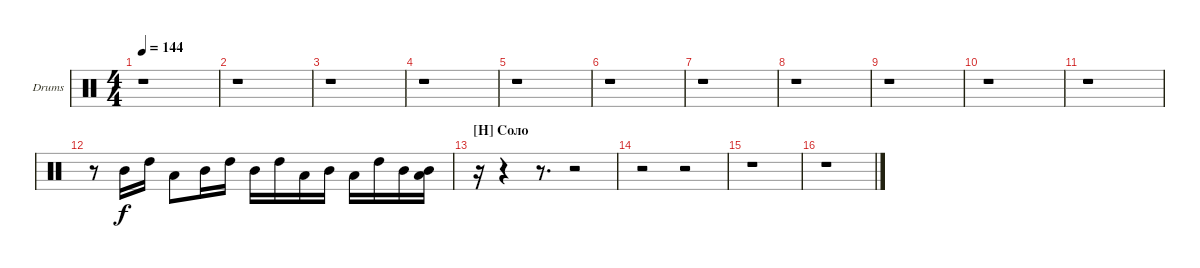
\defaultSystemsLayout 4
\bracketExtendMode groupsimilarinstruments
\firstSystemTrackNameOrientation horizontal
\otherSystemsTrackNameOrientation horizontal
\track ("Tom" "Drums") {instrument percussion}
\staff {score}
\articulation defaults
\ts (4 4)
\tempo 144
\clef neutral
\ks c
r.1{dy ff} |
r.1 |
r.1 |
r.1 |
r.1 |
r.1 |
r.1 |
r.1 |
r.1 |
r.1 |
r.1 |
r.8 "Mid Tom (hit)".16{dy f} "High Tom (hit)".16 "Low Tom (hit)".8 "Mid Tom (hit)".16 "High Tom (hit)".16 "Mid Tom (hit)".16 "High Tom (hit)".16 "Low Tom (hit)".16 "Mid Tom (hit)".16 "Low Tom (hit)".16 "High Tom (hit)".16 "Mid Tom (hit)".16 ("Mid Tom (hit)" "Low Tom (hit)").16 |
\section ("H" "Соло")
r.16 r.4 r.8{d} r.2 |
r.2 r.2 |
r.1 |
r.1
